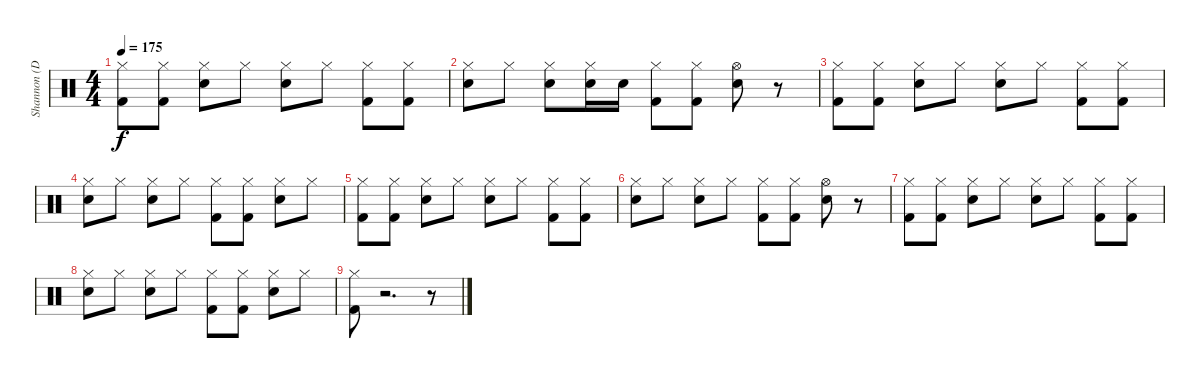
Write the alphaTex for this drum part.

\track ("Shannon (Drum)" "Shannon (D") {instrument percussion}
\staff {score}
\articulation defaults
\ts (4 4)
\tempo 175
\clef neutral
\ks c
("Hi-Hat (closed)" "Kick (hit) 2").8{dy f} ("Hi-Hat (closed)" "Kick (hit) 2").8 ("Hi-Hat (closed)" "Electric Snare (hit)").8 "Hi-Hat (closed)".8 ("Hi-Hat (closed)" "Electric Snare (hit)").8 "Hi-Hat (closed)".8 ("Hi-Hat (closed)" "Kick (hit) 2").8 ("Hi-Hat (closed)" "Kick (hit) 2").8 |
("Hi-Hat (closed)" "Electric Snare (hit)").8 "Hi-Hat (closed)".8 ("Hi-Hat (closed)" "Electric Snare (hit)").8 ("Hi-Hat (closed)" "Electric Snare (hit)").16 "Electric Snare (hit)".16 ("Hi-Hat (closed)" "Kick (hit) 2").8 ("Hi-Hat (closed)" "Kick (hit) 2").8 ("Hi-Hat (open)" "Electric Snare (hit)").8 r.8 |
("Hi-Hat (closed)" "Kick (hit) 2").8 ("Hi-Hat (closed)" "Kick (hit) 2").8 ("Hi-Hat (closed)" "Electric Snare (hit)").8 "Hi-Hat (closed)".8 ("Hi-Hat (closed)" "Electric Snare (hit)").8 "Hi-Hat (closed)".8 ("Hi-Hat (closed)" "Kick (hit) 2").8 ("Hi-Hat (closed)" "Kick (hit) 2").8 |
("Hi-Hat (closed)" "Electric Snare (hit)").8 "Hi-Hat (closed)".8 ("Hi-Hat (closed)" "Electric Snare (hit)").8 "Hi-Hat (closed)".8 ("Hi-Hat (closed)" "Kick (hit) 2").8 ("Hi-Hat (closed)" "Kick (hit) 2").8 ("Hi-Hat (closed)" "Electric Snare (hit)").8 "Hi-Hat (closed)".8 |
("Hi-Hat (closed)" "Kick (hit) 2").8 ("Hi-Hat (closed)" "Kick (hit) 2").8 ("Hi-Hat (closed)" "Electric Snare (hit)").8 "Hi-Hat (closed)".8 ("Hi-Hat (closed)" "Electric Snare (hit)").8 "Hi-Hat (closed)".8 ("Hi-Hat (closed)" "Kick (hit) 2").8 ("Hi-Hat (closed)" "Kick (hit) 2").8 |
("Hi-Hat (closed)" "Electric Snare (hit)").8 "Hi-Hat (closed)".8 ("Hi-Hat (closed)" "Electric Snare (hit)").8 "Hi-Hat (closed)".8 ("Hi-Hat (closed)" "Kick (hit) 2").8 ("Hi-Hat (closed)" "Kick (hit) 2").8 ("Hi-Hat (open)" "Electric Snare (hit)").8 r.8 |
("Hi-Hat (closed)" "Kick (hit) 2").8 ("Hi-Hat (closed)" "Kick (hit) 2").8 ("Hi-Hat (closed)" "Electric Snare (hit)").8 "Hi-Hat (closed)".8 ("Hi-Hat (closed)" "Electric Snare (hit)").8 "Hi-Hat (closed)".8 ("Hi-Hat (closed)" "Kick (hit) 2").8 ("Hi-Hat (closed)" "Kick (hit) 2").8 |
("Hi-Hat (closed)" "Electric Snare (hit)").8 "Hi-Hat (closed)".8 ("Hi-Hat (closed)" "Electric Snare (hit)").8 "Hi-Hat (closed)".8 ("Hi-Hat (closed)" "Kick (hit) 2").8 ("Hi-Hat (closed)" "Kick (hit) 2").8 ("Hi-Hat (closed)" "Electric Snare (hit)").8 "Hi-Hat (closed)".8 |
("Hi-Hat (closed)" "Kick (hit) 2").8 r.2{d} r.8
